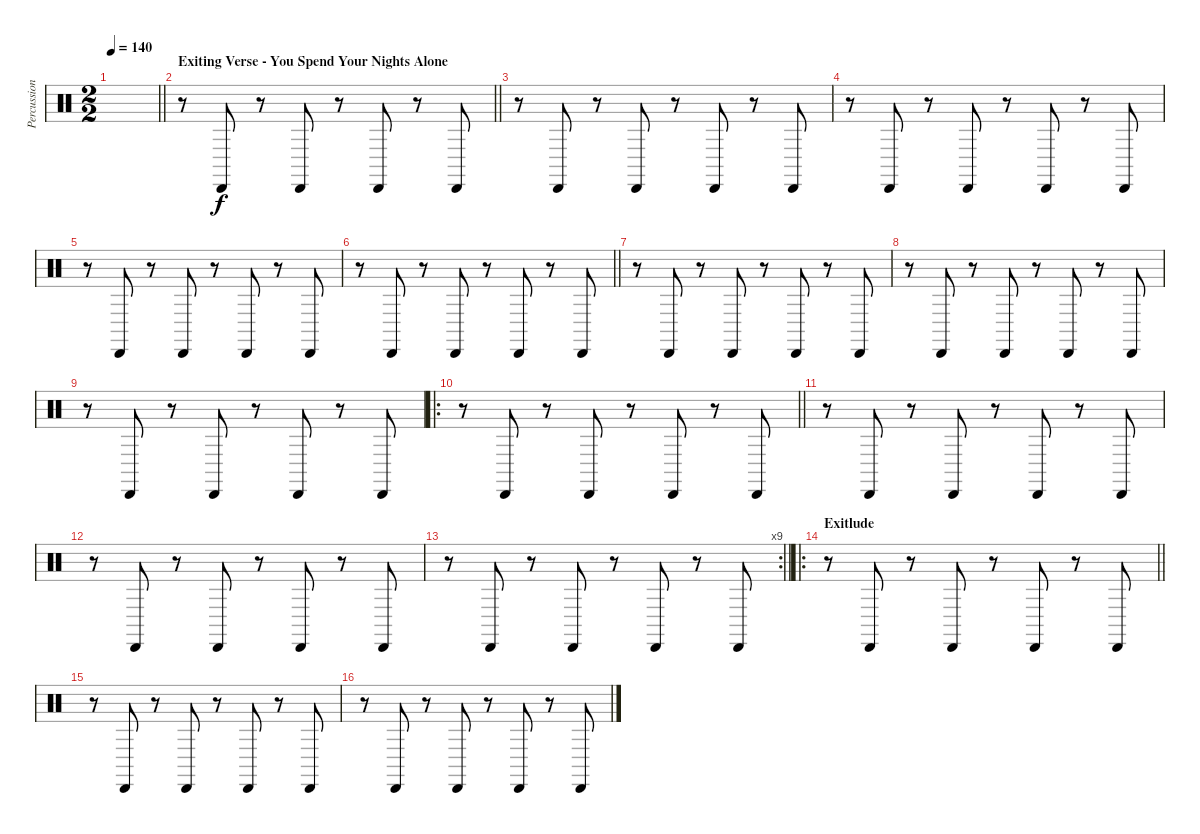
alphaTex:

\track ("Percussion 2" "Percussion") {instrument percussion}
\staff {score}
\articulation defaults
\ts (2 2)
\section ("" "")
\tempo 140
\clef neutral
\barLineRight lightlight
\ks c
|
\section ("" "Exiting Verse - You Spend Your Nights Alone")
\barLineRight lightlight
r.8 "Cabasa (hit)".8 r.8 "Cabasa (hit)".8 r.8 "Cabasa (hit)".8 r.8 "Cabasa (hit)".8 |
r.8 "Cabasa (hit)".8 r.8 "Cabasa (hit)".8 r.8 "Cabasa (hit)".8 r.8 "Cabasa (hit)".8 |
r.8 "Cabasa (hit)".8 r.8 "Cabasa (hit)".8 r.8 "Cabasa (hit)".8 r.8 "Cabasa (hit)".8 |
r.8 "Cabasa (hit)".8 r.8 "Cabasa (hit)".8 r.8 "Cabasa (hit)".8 r.8 "Cabasa (hit)".8 |
\barLineRight lightlight
r.8 "Cabasa (hit)".8 r.8 "Cabasa (hit)".8 r.8 "Cabasa (hit)".8 r.8 "Cabasa (hit)".8 |
r.8 "Cabasa (hit)".8 r.8 "Cabasa (hit)".8 r.8 "Cabasa (hit)".8 r.8 "Cabasa (hit)".8 |
r.8 "Cabasa (hit)".8 r.8 "Cabasa (hit)".8 r.8 "Cabasa (hit)".8 r.8 "Cabasa (hit)".8 |
r.8 "Cabasa (hit)".8 r.8 "Cabasa (hit)".8 r.8 "Cabasa (hit)".8 r.8 "Cabasa (hit)".8 |
\ro
\barLineRight lightlight
r.8 "Cabasa (hit)".8 r.8 "Cabasa (hit)".8 r.8 "Cabasa (hit)".8 r.8 "Cabasa (hit)".8 |
r.8 "Cabasa (hit)".8 r.8 "Cabasa (hit)".8 r.8 "Cabasa (hit)".8 r.8 "Cabasa (hit)".8 |
r.8 "Cabasa (hit)".8 r.8 "Cabasa (hit)".8 r.8 "Cabasa (hit)".8 r.8 "Cabasa (hit)".8 |
\rc 9
\barLineRight lightlight
r.8 "Cabasa (hit)".8 r.8 "Cabasa (hit)".8 r.8 "Cabasa (hit)".8 r.8 "Cabasa (hit)".8 |
\ro
\section ("" "Exitlude")
\barLineRight lightlight
r.8 "Cabasa (hit)".8 r.8 "Cabasa (hit)".8 r.8 "Cabasa (hit)".8 r.8 "Cabasa (hit)".8 |
r.8 "Cabasa (hit)".8 r.8 "Cabasa (hit)".8 r.8 "Cabasa (hit)".8 r.8 "Cabasa (hit)".8 |
r.8 "Cabasa (hit)".8 r.8 "Cabasa (hit)".8 r.8 "Cabasa (hit)".8 r.8 "Cabasa (hit)".8
